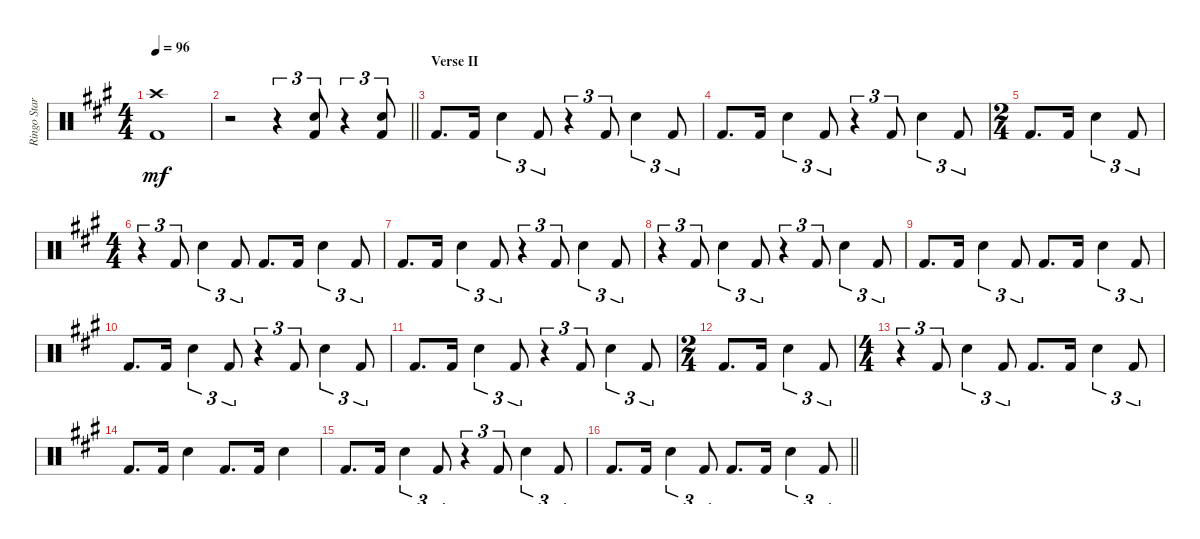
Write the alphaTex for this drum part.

\track ("Ringo Starr - Drums" "Ringo Star") {instrument percussion}
\staff {score}
\articulation defaults
\ts (4 4)
\tempo 96
\clef neutral
\ks a
("Crash high (hit)" "Kick (hit) 2").1{dy mf} |
\barLineRight lightlight
r.2 r.4{tu (3 2)} ("Snare (hit) 2" "Kick (hit) 2").8{tu (3 2)} r.4{tu (3 2)} ("Snare (hit) 2" "Kick (hit) 2").8{tu (3 2)} |
\section ("" "Verse II")
"Kick (hit) 2".8{d} "Kick (hit) 2".16 "Snare (hit) 2".4{tu (3 2)} "Kick (hit) 2".8{tu (3 2)} r.4{tu (3 2)} "Kick (hit) 2".8{tu (3 2)} "Snare (hit) 2".4{tu (3 2)} "Kick (hit) 2".8{tu (3 2)} |
"Kick (hit) 2".8{d} "Kick (hit) 2".16 "Snare (hit) 2".4{tu (3 2)} "Kick (hit) 2".8{tu (3 2)} r.4{tu (3 2)} "Kick (hit) 2".8{tu (3 2)} "Snare (hit) 2".4{tu (3 2)} "Kick (hit) 2".8{tu (3 2)} |
\ts (2 4)
"Kick (hit) 2".8{d} "Kick (hit) 2".16 "Snare (hit) 2".4{tu (3 2)} "Kick (hit) 2".8{tu (3 2)} |
\ts (4 4)
r.4{tu (3 2)} "Kick (hit) 2".8{tu (3 2)} "Snare (hit) 2".4{tu (3 2)} "Kick (hit) 2".8{tu (3 2)} "Kick (hit) 2".8{d} "Kick (hit) 2".16 "Snare (hit) 2".4{tu (3 2)} "Kick (hit) 2".8{tu (3 2)} |
"Kick (hit) 2".8{d} "Kick (hit) 2".16 "Snare (hit) 2".4{tu (3 2)} "Kick (hit) 2".8{tu (3 2)} r.4{tu (3 2)} "Kick (hit) 2".8{tu (3 2)} "Snare (hit) 2".4{tu (3 2)} "Kick (hit) 2".8{tu (3 2)} |
r.4{tu (3 2)} "Kick (hit) 2".8{tu (3 2)} "Snare (hit) 2".4{tu (3 2)} "Kick (hit) 2".8{tu (3 2)} r.4{tu (3 2)} "Kick (hit) 2".8{tu (3 2)} "Snare (hit) 2".4{tu (3 2)} "Kick (hit) 2".8{tu (3 2)} |
"Kick (hit) 2".8{d} "Kick (hit) 2".16 "Snare (hit) 2".4{tu (3 2)} "Kick (hit) 2".8{tu (3 2)} "Kick (hit) 2".8{d} "Kick (hit) 2".16 "Snare (hit) 2".4{tu (3 2)} "Kick (hit) 2".8{tu (3 2)} |
"Kick (hit) 2".8{d} "Kick (hit) 2".16 "Snare (hit) 2".4{tu (3 2)} "Kick (hit) 2".8{tu (3 2)} r.4{tu (3 2)} "Kick (hit) 2".8{tu (3 2)} "Snare (hit) 2".4{tu (3 2)} "Kick (hit) 2".8{tu (3 2)} |
"Kick (hit) 2".8{d} "Kick (hit) 2".16 "Snare (hit) 2".4{tu (3 2)} "Kick (hit) 2".8{tu (3 2)} r.4{tu (3 2)} "Kick (hit) 2".8{tu (3 2)} "Snare (hit) 2".4{tu (3 2)} "Kick (hit) 2".8{tu (3 2)} |
\ts (2 4)
"Kick (hit) 2".8{d} "Kick (hit) 2".16 "Snare (hit) 2".4{tu (3 2)} "Kick (hit) 2".8{tu (3 2)} |
\ts (4 4)
r.4{tu (3 2)} "Kick (hit) 2".8{tu (3 2)} "Snare (hit) 2".4{tu (3 2)} "Kick (hit) 2".8{tu (3 2)} "Kick (hit) 2".8{d} "Kick (hit) 2".16 "Snare (hit) 2".4{tu (3 2)} "Kick (hit) 2".8{tu (3 2)} |
"Kick (hit) 2".8{d} "Kick (hit) 2".16 "Snare (hit) 2".4 "Kick (hit) 2".8{d} "Kick (hit) 2".16 "Snare (hit) 2".4 |
"Kick (hit) 2".8{d} "Kick (hit) 2".16 "Snare (hit) 2".4{tu (3 2)} "Kick (hit) 2".8{tu (3 2)} r.4{tu (3 2)} "Kick (hit) 2".8{tu (3 2)} "Snare (hit) 2".4{tu (3 2)} "Kick (hit) 2".8{tu (3 2)} |
\barLineRight lightlight "Kick (hit) 2".8{d} "Kick (hit) 2".16 "Snare (hit) 2".4{tu (3 2)} "Kick (hit) 2".8{tu (3 2)} "Kick (hit) 2".8{d} "Kick (hit) 2".16 "Snare (hit) 2".4{tu (3 2)} "Kick (hit) 2".8{tu (3 2)}
